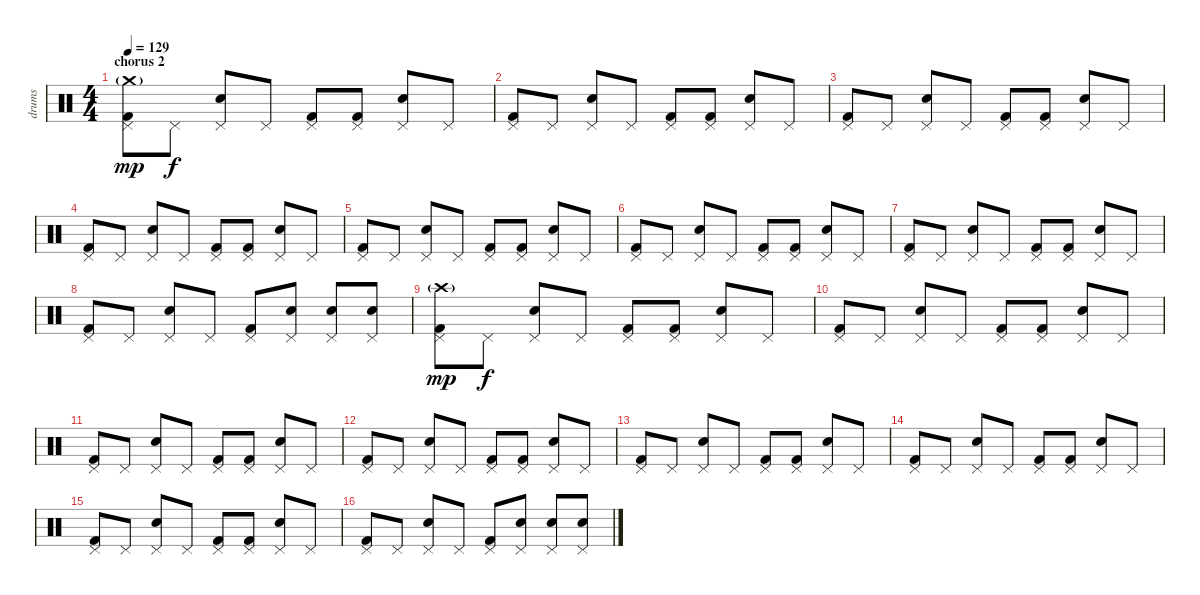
\track ("drums" "drums") {instrument percussion}
\staff {score}
\articulation defaults
\ts (4 4)
\section ("" "chorus 2")
\tempo 129
\clef neutral
\ks c
("Kick (hit) 2" "Pedal Hi-Hat (hit)" "Crash medium (hit)"{g}).8{dy mp} "Pedal Hi-Hat (hit)".8{dy f} ("Electric Snare (hit)" "Pedal Hi-Hat (hit)").8 "Pedal Hi-Hat (hit)".8 ("Kick (hit) 2" "Pedal Hi-Hat (hit)").8 ("Kick (hit) 2" "Pedal Hi-Hat (hit)").8 ("Electric Snare (hit)" "Pedal Hi-Hat (hit)").8 "Pedal Hi-Hat (hit)".8 |
("Kick (hit) 2" "Pedal Hi-Hat (hit)").8 "Pedal Hi-Hat (hit)".8 ("Electric Snare (hit)" "Pedal Hi-Hat (hit)").8 "Pedal Hi-Hat (hit)".8 ("Kick (hit) 2" "Pedal Hi-Hat (hit)").8 ("Kick (hit) 2" "Pedal Hi-Hat (hit)").8 ("Electric Snare (hit)" "Pedal Hi-Hat (hit)").8 "Pedal Hi-Hat (hit)".8 |
("Kick (hit) 2" "Pedal Hi-Hat (hit)").8 "Pedal Hi-Hat (hit)".8 ("Electric Snare (hit)" "Pedal Hi-Hat (hit)").8 "Pedal Hi-Hat (hit)".8 ("Kick (hit) 2" "Pedal Hi-Hat (hit)").8 ("Kick (hit) 2" "Pedal Hi-Hat (hit)").8 ("Electric Snare (hit)" "Pedal Hi-Hat (hit)").8 "Pedal Hi-Hat (hit)".8 |
("Kick (hit) 2" "Pedal Hi-Hat (hit)").8 "Pedal Hi-Hat (hit)".8 ("Electric Snare (hit)" "Pedal Hi-Hat (hit)").8 "Pedal Hi-Hat (hit)".8 ("Kick (hit) 2" "Pedal Hi-Hat (hit)").8 ("Kick (hit) 2" "Pedal Hi-Hat (hit)").8 ("Electric Snare (hit)" "Pedal Hi-Hat (hit)").8 "Pedal Hi-Hat (hit)".8 |
("Kick (hit) 2" "Pedal Hi-Hat (hit)").8 "Pedal Hi-Hat (hit)".8 ("Electric Snare (hit)" "Pedal Hi-Hat (hit)").8 "Pedal Hi-Hat (hit)".8 ("Kick (hit) 2" "Pedal Hi-Hat (hit)").8 ("Kick (hit) 2" "Pedal Hi-Hat (hit)").8 ("Electric Snare (hit)" "Pedal Hi-Hat (hit)").8 "Pedal Hi-Hat (hit)".8 |
("Kick (hit) 2" "Pedal Hi-Hat (hit)").8 "Pedal Hi-Hat (hit)".8 ("Electric Snare (hit)" "Pedal Hi-Hat (hit)").8 "Pedal Hi-Hat (hit)".8 ("Kick (hit) 2" "Pedal Hi-Hat (hit)").8 ("Kick (hit) 2" "Pedal Hi-Hat (hit)").8 ("Electric Snare (hit)" "Pedal Hi-Hat (hit)").8 "Pedal Hi-Hat (hit)".8 |
("Kick (hit) 2" "Pedal Hi-Hat (hit)").8 "Pedal Hi-Hat (hit)".8 ("Electric Snare (hit)" "Pedal Hi-Hat (hit)").8 "Pedal Hi-Hat (hit)".8 ("Kick (hit) 2" "Pedal Hi-Hat (hit)").8 ("Kick (hit) 2" "Pedal Hi-Hat (hit)").8 ("Electric Snare (hit)" "Pedal Hi-Hat (hit)").8 "Pedal Hi-Hat (hit)".8 |
("Kick (hit) 2" "Pedal Hi-Hat (hit)").8 "Pedal Hi-Hat (hit)".8 ("Electric Snare (hit)" "Pedal Hi-Hat (hit)").8 "Pedal Hi-Hat (hit)".8 ("Kick (hit) 2" "Pedal Hi-Hat (hit)").8 ("Electric Snare (hit)" "Pedal Hi-Hat (hit)").8 ("Electric Snare (hit)" "Pedal Hi-Hat (hit)").8 ("Electric Snare (hit)" "Pedal Hi-Hat (hit)").8 |
("Kick (hit) 2" "Pedal Hi-Hat (hit)" "Crash high (hit)"{g}).8{dy mp} "Pedal Hi-Hat (hit)".8{dy f} ("Electric Snare (hit)" "Pedal Hi-Hat (hit)").8 "Pedal Hi-Hat (hit)".8 ("Kick (hit) 2" "Pedal Hi-Hat (hit)").8 ("Kick (hit) 2" "Pedal Hi-Hat (hit)").8 ("Electric Snare (hit)" "Pedal Hi-Hat (hit)").8 "Pedal Hi-Hat (hit)".8 |
("Kick (hit) 2" "Pedal Hi-Hat (hit)").8 "Pedal Hi-Hat (hit)".8 ("Electric Snare (hit)" "Pedal Hi-Hat (hit)").8 "Pedal Hi-Hat (hit)".8 ("Kick (hit) 2" "Pedal Hi-Hat (hit)").8 ("Kick (hit) 2" "Pedal Hi-Hat (hit)").8 ("Electric Snare (hit)" "Pedal Hi-Hat (hit)").8 "Pedal Hi-Hat (hit)".8 |
("Kick (hit) 2" "Pedal Hi-Hat (hit)").8 "Pedal Hi-Hat (hit)".8 ("Electric Snare (hit)" "Pedal Hi-Hat (hit)").8 "Pedal Hi-Hat (hit)".8 ("Kick (hit) 2" "Pedal Hi-Hat (hit)").8 ("Kick (hit) 2" "Pedal Hi-Hat (hit)").8 ("Electric Snare (hit)" "Pedal Hi-Hat (hit)").8 "Pedal Hi-Hat (hit)".8 |
("Kick (hit) 2" "Pedal Hi-Hat (hit)").8 "Pedal Hi-Hat (hit)".8 ("Electric Snare (hit)" "Pedal Hi-Hat (hit)").8 "Pedal Hi-Hat (hit)".8 ("Kick (hit) 2" "Pedal Hi-Hat (hit)").8 ("Kick (hit) 2" "Pedal Hi-Hat (hit)").8 ("Electric Snare (hit)" "Pedal Hi-Hat (hit)").8 "Pedal Hi-Hat (hit)".8 |
("Kick (hit) 2" "Pedal Hi-Hat (hit)").8 "Pedal Hi-Hat (hit)".8 ("Electric Snare (hit)" "Pedal Hi-Hat (hit)").8 "Pedal Hi-Hat (hit)".8 ("Kick (hit) 2" "Pedal Hi-Hat (hit)").8 ("Kick (hit) 2" "Pedal Hi-Hat (hit)").8 ("Electric Snare (hit)" "Pedal Hi-Hat (hit)").8 "Pedal Hi-Hat (hit)".8 |
("Kick (hit) 2" "Pedal Hi-Hat (hit)").8 "Pedal Hi-Hat (hit)".8 ("Electric Snare (hit)" "Pedal Hi-Hat (hit)").8 "Pedal Hi-Hat (hit)".8 ("Kick (hit) 2" "Pedal Hi-Hat (hit)").8 ("Kick (hit) 2" "Pedal Hi-Hat (hit)").8 ("Electric Snare (hit)" "Pedal Hi-Hat (hit)").8 "Pedal Hi-Hat (hit)".8 |
("Kick (hit) 2" "Pedal Hi-Hat (hit)").8 "Pedal Hi-Hat (hit)".8 ("Electric Snare (hit)" "Pedal Hi-Hat (hit)").8 "Pedal Hi-Hat (hit)".8 ("Kick (hit) 2" "Pedal Hi-Hat (hit)").8 ("Kick (hit) 2" "Pedal Hi-Hat (hit)").8 ("Electric Snare (hit)" "Pedal Hi-Hat (hit)").8 "Pedal Hi-Hat (hit)".8 |
("Kick (hit) 2" "Pedal Hi-Hat (hit)").8 "Pedal Hi-Hat (hit)".8 ("Electric Snare (hit)" "Pedal Hi-Hat (hit)").8 "Pedal Hi-Hat (hit)".8 ("Kick (hit) 2" "Pedal Hi-Hat (hit)").8 ("Electric Snare (hit)" "Pedal Hi-Hat (hit)").8 ("Electric Snare (hit)" "Pedal Hi-Hat (hit)").8 ("Electric Snare (hit)" "Pedal Hi-Hat (hit)").8
